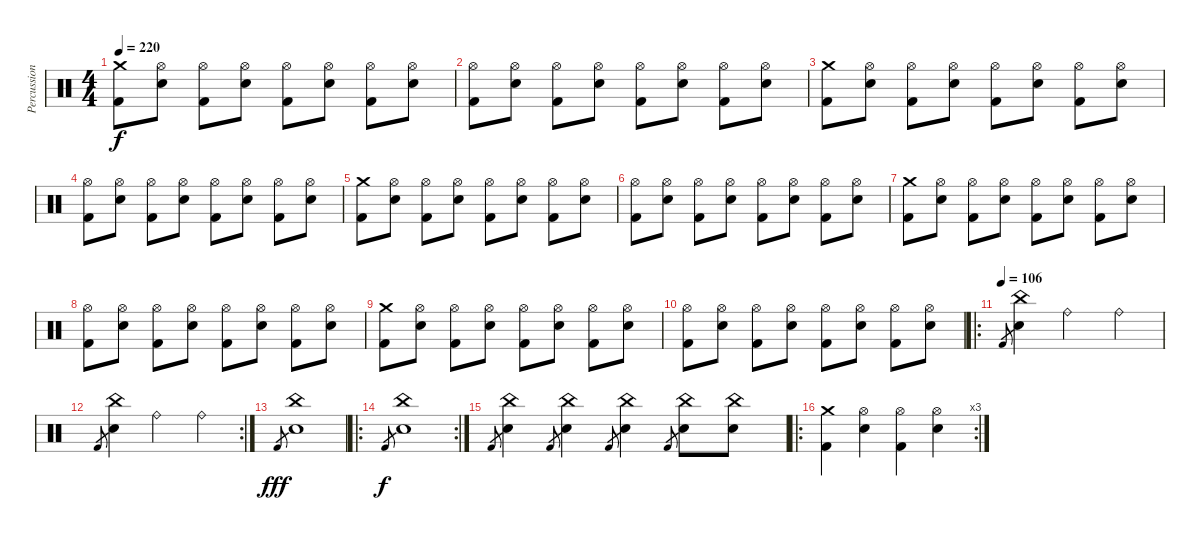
\track ("Percussion" "Percussion") {instrument percussion}
\staff {score}
\articulation defaults
\ts (4 4)
\tempo 220
\clef neutral
\ks c
("Kick (hit) 2" "Crash medium (hit)").8{dy f} ("Snare (hit) 2" "Hi-Hat (open)").8 ("Kick (hit) 2" "Hi-Hat (open)").8 ("Snare (hit) 2" "Hi-Hat (open)").8 ("Kick (hit) 2" "Hi-Hat (open)").8 ("Snare (hit) 2" "Hi-Hat (open)").8 ("Kick (hit) 2" "Hi-Hat (open)").8 ("Snare (hit) 2" "Hi-Hat (open)").8 |
("Kick (hit) 2" "Hi-Hat (open)").8 ("Snare (hit) 2" "Hi-Hat (open)").8 ("Kick (hit) 2" "Hi-Hat (open)").8 ("Snare (hit) 2" "Hi-Hat (open)").8 ("Kick (hit) 2" "Hi-Hat (open)").8 ("Snare (hit) 2" "Hi-Hat (open)").8 ("Kick (hit) 2" "Hi-Hat (open)").8 ("Snare (hit) 2" "Hi-Hat (open)").8 |
("Kick (hit) 2" "Crash medium (hit)").8 ("Snare (hit) 2" "Hi-Hat (open)").8 ("Kick (hit) 2" "Hi-Hat (open)").8 ("Snare (hit) 2" "Hi-Hat (open)").8 ("Kick (hit) 2" "Hi-Hat (open)").8 ("Snare (hit) 2" "Hi-Hat (open)").8 ("Kick (hit) 2" "Hi-Hat (open)").8 ("Snare (hit) 2" "Hi-Hat (open)").8 |
("Kick (hit) 2" "Hi-Hat (open)").8 ("Snare (hit) 2" "Hi-Hat (open)").8 ("Kick (hit) 2" "Hi-Hat (open)").8 ("Snare (hit) 2" "Hi-Hat (open)").8 ("Kick (hit) 2" "Hi-Hat (open)").8 ("Snare (hit) 2" "Hi-Hat (open)").8 ("Kick (hit) 2" "Hi-Hat (open)").8 ("Snare (hit) 2" "Hi-Hat (open)").8 |
("Kick (hit) 2" "Crash medium (hit)").8 ("Snare (hit) 2" "Hi-Hat (open)").8 ("Kick (hit) 2" "Hi-Hat (open)").8 ("Snare (hit) 2" "Hi-Hat (open)").8 ("Kick (hit) 2" "Hi-Hat (open)").8 ("Snare (hit) 2" "Hi-Hat (open)").8 ("Kick (hit) 2" "Hi-Hat (open)").8 ("Snare (hit) 2" "Hi-Hat (open)").8 |
("Kick (hit) 2" "Hi-Hat (open)").8 ("Snare (hit) 2" "Hi-Hat (open)").8 ("Kick (hit) 2" "Hi-Hat (open)").8 ("Snare (hit) 2" "Hi-Hat (open)").8 ("Kick (hit) 2" "Hi-Hat (open)").8 ("Snare (hit) 2" "Hi-Hat (open)").8 ("Kick (hit) 2" "Hi-Hat (open)").8 ("Snare (hit) 2" "Hi-Hat (open)").8 |
("Kick (hit) 2" "Crash medium (hit)").8 ("Snare (hit) 2" "Hi-Hat (open)").8 ("Kick (hit) 2" "Hi-Hat (open)").8 ("Snare (hit) 2" "Hi-Hat (open)").8 ("Kick (hit) 2" "Hi-Hat (open)").8 ("Snare (hit) 2" "Hi-Hat (open)").8 ("Kick (hit) 2" "Hi-Hat (open)").8 ("Snare (hit) 2" "Hi-Hat (open)").8 |
("Kick (hit) 2" "Hi-Hat (open)").8 ("Snare (hit) 2" "Hi-Hat (open)").8 ("Kick (hit) 2" "Hi-Hat (open)").8 ("Snare (hit) 2" "Hi-Hat (open)").8 ("Kick (hit) 2" "Hi-Hat (open)").8 ("Snare (hit) 2" "Hi-Hat (open)").8 ("Kick (hit) 2" "Hi-Hat (open)").8 ("Snare (hit) 2" "Hi-Hat (open)").8 |
("Kick (hit) 2" "Crash medium (hit)").8 ("Snare (hit) 2" "Hi-Hat (open)").8 ("Kick (hit) 2" "Hi-Hat (open)").8 ("Snare (hit) 2" "Hi-Hat (open)").8 ("Kick (hit) 2" "Hi-Hat (open)").8 ("Snare (hit) 2" "Hi-Hat (open)").8 ("Kick (hit) 2" "Hi-Hat (open)").8 ("Snare (hit) 2" "Hi-Hat (open)").8 |
("Kick (hit) 2" "Hi-Hat (open)").8 ("Snare (hit) 2" "Hi-Hat (open)").8 ("Kick (hit) 2" "Hi-Hat (open)").8 ("Snare (hit) 2" "Hi-Hat (open)").8 ("Kick (hit) 2" "Hi-Hat (open)").8 ("Snare (hit) 2" "Hi-Hat (open)").8 ("Kick (hit) 2" "Hi-Hat (open)").8 ("Snare (hit) 2" "Hi-Hat (open)").8 |
\ro
\tempo (106)
"Kick (hit) 2".8{gr} ("China (hit)" "Snare (hit) 2").4 "Ride (bell)".2 "Ride (bell)".4 |
\rc 2 "Kick (hit) 2".8{gr}
("China (hit)" "Snare (hit) 2").4 "Ride (bell)".2 "Ride (bell)".4 |
"Kick (hit) 2".8{gr dy fff} ("Snare (hit) 2" "China (hit)").1 |
\ro
\rc 2 "Kick (hit) 2".8{gr dy f}
("Snare (hit) 2" "China (hit)").1 |
"Kick (hit) 2".8{gr} ("Snare (hit) 2" "China (hit)").4 "Kick (hit) 2".8{gr} ("Snare (hit) 2" "China (hit)").4 "Kick (hit) 2".8{gr} ("Snare (hit) 2" "China (hit)").4 "Kick (hit) 2".8{gr} ("Snare (hit) 2" "China (hit)").8 ("Snare (hit) 2" "China (hit)").8 |
\ro
\rc 3
("Kick (hit) 2" "Crash medium (hit)").4 ("Snare (hit) 2" "Hi-Hat (open)").4 ("Kick (hit) 2" "Hi-Hat (open)").4 ("Snare (hit) 2" "Hi-Hat (open)").4
